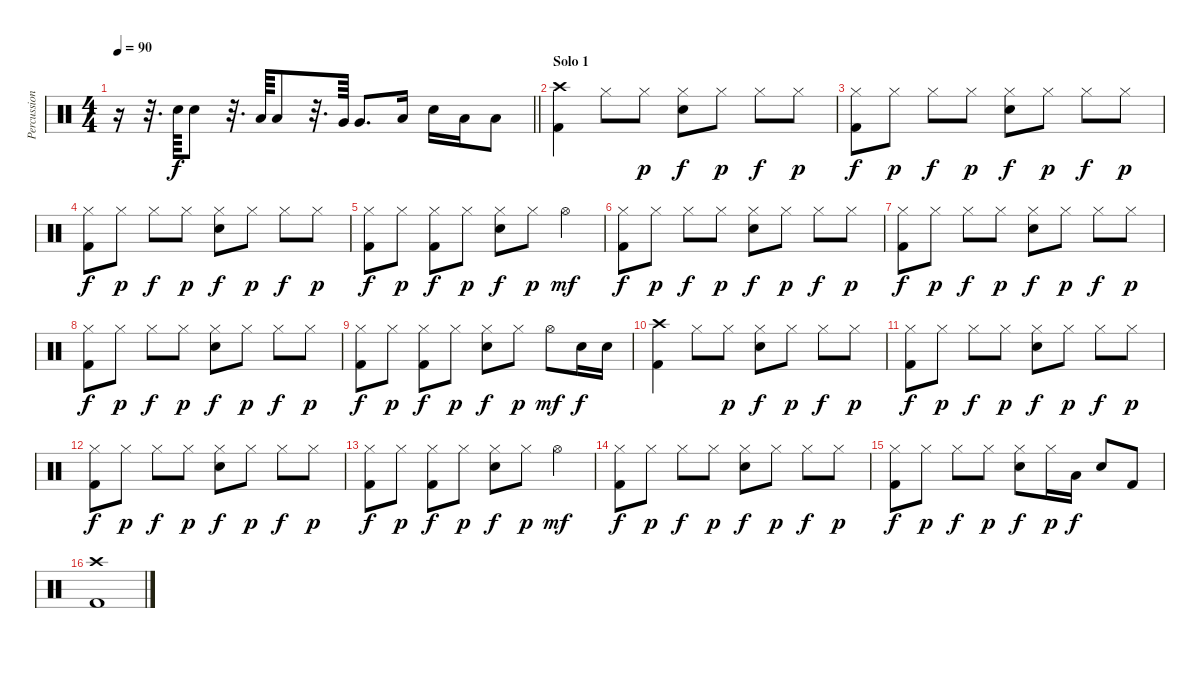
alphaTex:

\track ("Percussion" "Percussion") {instrument percussion}
\staff {score}
\articulation defaults
\ts (4 4)
\tempo 90
\clef neutral
\barLineRight lightlight
\ks c
r.16{dy f} r.32{d} "Electric Snare (hit)".64 "Electric Snare (hit)".8 r.32{d} "Low Tom (hit)".64 "Low Tom (hit)".8 r.32{d} "Very Low Tom (hit)".64 "Very Low Tom (hit)".8{d} "Low Tom (hit)".16 "Electric Snare (hit)".16 "Low Tom (hit)".16 "Low Tom (hit)".8 |
\section ("" "Solo 1")
("Crash high (hit)" "Kick (hit) 2").4 "Hi-Hat (closed)".8 "Hi-Hat (closed)".8{dy p} ("Hi-Hat (closed)" "Electric Snare (hit)").8{dy f} "Hi-Hat (closed)".8{dy p} "Hi-Hat (closed)".8{dy f} "Hi-Hat (closed)".8{dy p} |
("Hi-Hat (closed)" "Kick (hit) 2").8{dy f} "Hi-Hat (closed)".8{dy p} "Hi-Hat (closed)".8{dy f} "Hi-Hat (closed)".8{dy p} ("Hi-Hat (closed)" "Electric Snare (hit)").8{dy f} "Hi-Hat (closed)".8{dy p} "Hi-Hat (closed)".8{dy f} "Hi-Hat (closed)".8{dy p} |
("Hi-Hat (closed)" "Kick (hit) 2").8{dy f} "Hi-Hat (closed)".8{dy p} "Hi-Hat (closed)".8{dy f} "Hi-Hat (closed)".8{dy p} ("Hi-Hat (closed)" "Electric Snare (hit)").8{dy f} "Hi-Hat (closed)".8{dy p} "Hi-Hat (closed)".8{dy f} "Hi-Hat (closed)".8{dy p} |
("Hi-Hat (closed)" "Kick (hit) 2").8{dy f} "Hi-Hat (closed)".8{dy p} ("Hi-Hat (closed)" "Kick (hit) 2").8{dy f} "Hi-Hat (closed)".8{dy p} ("Hi-Hat (closed)" "Electric Snare (hit)").8{dy f} "Hi-Hat (closed)".8{dy p} "Hi-Hat (open)".4{dy mf} |
("Hi-Hat (closed)" "Kick (hit) 2").8{dy f} "Hi-Hat (closed)".8{dy p} "Hi-Hat (closed)".8{dy f} "Hi-Hat (closed)".8{dy p} ("Hi-Hat (closed)" "Electric Snare (hit)").8{dy f} "Hi-Hat (closed)".8{dy p} "Hi-Hat (closed)".8{dy f} "Hi-Hat (closed)".8{dy p} |
("Hi-Hat (closed)" "Kick (hit) 2").8{dy f} "Hi-Hat (closed)".8{dy p} "Hi-Hat (closed)".8{dy f} "Hi-Hat (closed)".8{dy p} ("Hi-Hat (closed)" "Electric Snare (hit)").8{dy f} "Hi-Hat (closed)".8{dy p} "Hi-Hat (closed)".8{dy f} "Hi-Hat (closed)".8{dy p} |
("Hi-Hat (closed)" "Kick (hit) 2").8{dy f} "Hi-Hat (closed)".8{dy p} "Hi-Hat (closed)".8{dy f} "Hi-Hat (closed)".8{dy p} ("Hi-Hat (closed)" "Electric Snare (hit)").8{dy f} "Hi-Hat (closed)".8{dy p} "Hi-Hat (closed)".8{dy f} "Hi-Hat (closed)".8{dy p} |
("Hi-Hat (closed)" "Kick (hit) 2").8{dy f} "Hi-Hat (closed)".8{dy p} ("Hi-Hat (closed)" "Kick (hit) 2").8{dy f} "Hi-Hat (closed)".8{dy p} ("Hi-Hat (closed)" "Electric Snare (hit)").8{dy f} "Hi-Hat (closed)".8{dy p} "Hi-Hat (open)".8{dy mf} "Electric Snare (hit)".16{dy f} "Electric Snare (hit)".16 |
("Crash high (hit)" "Kick (hit) 2").4 "Hi-Hat (closed)".8 "Hi-Hat (closed)".8{dy p} ("Hi-Hat (closed)" "Electric Snare (hit)").8{dy f} "Hi-Hat (closed)".8{dy p} "Hi-Hat (closed)".8{dy f} "Hi-Hat (closed)".8{dy p} |
("Hi-Hat (closed)" "Kick (hit) 2").8{dy f} "Hi-Hat (closed)".8{dy p} "Hi-Hat (closed)".8{dy f} "Hi-Hat (closed)".8{dy p} ("Hi-Hat (closed)" "Electric Snare (hit)").8{dy f} "Hi-Hat (closed)".8{dy p} "Hi-Hat (closed)".8{dy f} "Hi-Hat (closed)".8{dy p} |
("Hi-Hat (closed)" "Kick (hit) 2").8{dy f} "Hi-Hat (closed)".8{dy p} "Hi-Hat (closed)".8{dy f} "Hi-Hat (closed)".8{dy p} ("Hi-Hat (closed)" "Electric Snare (hit)").8{dy f} "Hi-Hat (closed)".8{dy p} "Hi-Hat (closed)".8{dy f} "Hi-Hat (closed)".8{dy p} |
("Hi-Hat (closed)" "Kick (hit) 2").8{dy f} "Hi-Hat (closed)".8{dy p} ("Hi-Hat (closed)" "Kick (hit) 2").8{dy f} "Hi-Hat (closed)".8{dy p} ("Hi-Hat (closed)" "Electric Snare (hit)").8{dy f} "Hi-Hat (closed)".8{dy p} "Hi-Hat (open)".4{dy mf} |
("Hi-Hat (closed)" "Kick (hit) 2").8{dy f} "Hi-Hat (closed)".8{dy p} "Hi-Hat (closed)".8{dy f} "Hi-Hat (closed)".8{dy p} ("Hi-Hat (closed)" "Electric Snare (hit)").8{dy f} "Hi-Hat (closed)".8{dy p} "Hi-Hat (closed)".8{dy f} "Hi-Hat (closed)".8{dy p} |
("Hi-Hat (closed)" "Kick (hit) 2").8{dy f} "Hi-Hat (closed)".8{dy p} "Hi-Hat (closed)".8{dy f} "Hi-Hat (closed)".8{dy p} ("Hi-Hat (closed)" "Electric Snare (hit)").8{dy f} "Hi-Hat (closed)".16{dy p} "Low Tom (hit)".16{dy f} "Electric Snare (hit)".8 "Kick (hit) 2".8 |
("Crash high (hit)" "Kick (hit) 2").1
